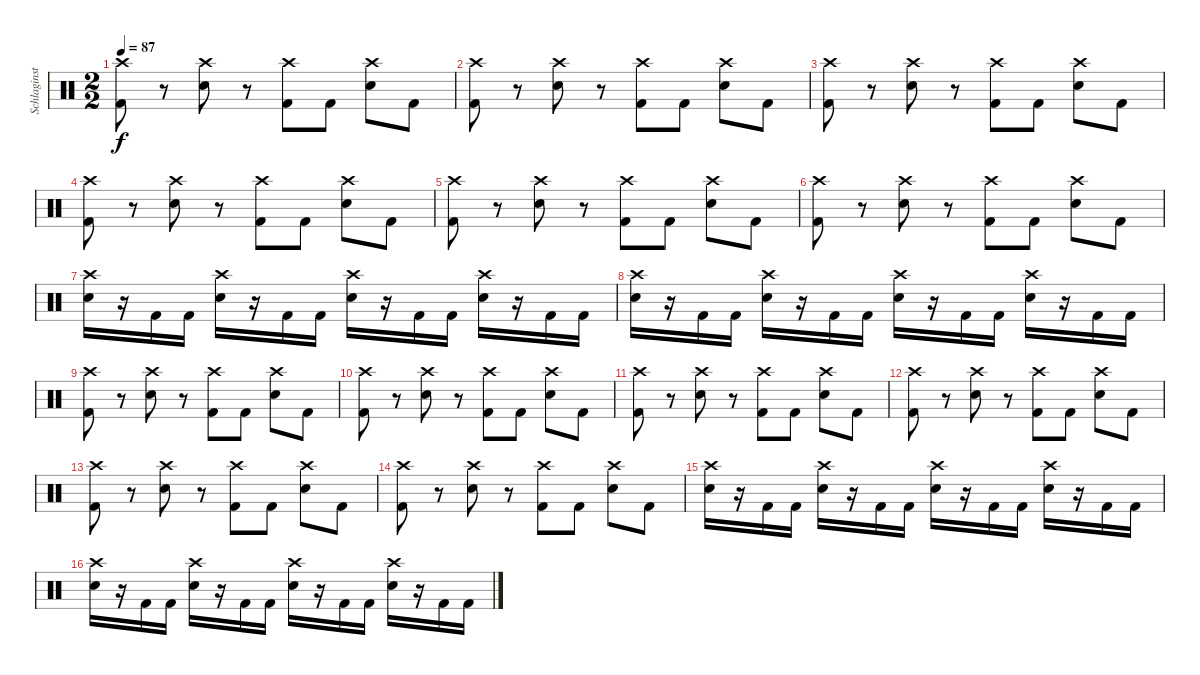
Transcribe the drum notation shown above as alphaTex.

\track ("Schlaginstrumente - Auswahl" "Schlaginst") {instrument percussion}
\staff {score}
\articulation defaults
\ts (2 2)
\tempo 87
\clef neutral
\ks c
("Crash high (hit)" "Kick (hit) 2").8{dy f} r.8 ("Crash high (hit)" "Electric Snare (hit)").8 r.8 ("Crash high (hit)" "Kick (hit) 2").8 "Kick (hit) 2".8 ("Crash high (hit)" "Electric Snare (hit)").8 "Kick (hit) 2".8 |
("Crash high (hit)" "Kick (hit) 2").8 r.8 ("Crash high (hit)" "Electric Snare (hit)").8 r.8 ("Crash high (hit)" "Kick (hit) 2").8 "Kick (hit) 2".8 ("Crash high (hit)" "Electric Snare (hit)").8 "Kick (hit) 2".8 |
("Crash high (hit)" "Kick (hit) 2").8 r.8 ("Crash high (hit)" "Electric Snare (hit)").8 r.8 ("Crash high (hit)" "Kick (hit) 2").8 "Kick (hit) 2".8 ("Crash high (hit)" "Electric Snare (hit)").8 "Kick (hit) 2".8 |
("Crash high (hit)" "Kick (hit) 2").8 r.8 ("Crash high (hit)" "Electric Snare (hit)").8 r.8 ("Crash high (hit)" "Kick (hit) 2").8 "Kick (hit) 2".8 ("Crash high (hit)" "Electric Snare (hit)").8 "Kick (hit) 2".8 |
("Crash high (hit)" "Kick (hit) 2").8 r.8 ("Crash high (hit)" "Electric Snare (hit)").8 r.8 ("Crash high (hit)" "Kick (hit) 2").8 "Kick (hit) 2".8 ("Crash high (hit)" "Electric Snare (hit)").8 "Kick (hit) 2".8 |
("Crash high (hit)" "Kick (hit) 2").8 r.8 ("Crash high (hit)" "Electric Snare (hit)").8 r.8 ("Crash high (hit)" "Kick (hit) 2").8 "Kick (hit) 2".8 ("Crash high (hit)" "Electric Snare (hit)").8 "Kick (hit) 2".8 |
("Crash high (hit)" "Electric Snare (hit)").16 r.16 "Kick (hit) 2".16 "Kick (hit) 2".16 ("Crash high (hit)" "Electric Snare (hit)").16 r.16 "Kick (hit) 2".16 "Kick (hit) 2".16 ("Crash high (hit)" "Electric Snare (hit)").16 r.16 "Kick (hit) 2".16 "Kick (hit) 2".16 ("Crash high (hit)" "Electric Snare (hit)").16 r.16 "Kick (hit) 2".16 "Kick (hit) 2".16 |
("Crash high (hit)" "Electric Snare (hit)").16 r.16 "Kick (hit) 2".16 "Kick (hit) 2".16 ("Crash high (hit)" "Electric Snare (hit)").16 r.16 "Kick (hit) 2".16 "Kick (hit) 2".16 ("Crash high (hit)" "Electric Snare (hit)").16 r.16 "Kick (hit) 2".16 "Kick (hit) 2".16 ("Crash high (hit)" "Electric Snare (hit)").16 r.16 "Kick (hit) 2".16 "Kick (hit) 2".16 |
("Crash high (hit)" "Kick (hit) 2").8 r.8 ("Crash high (hit)" "Electric Snare (hit)").8 r.8 ("Crash high (hit)" "Kick (hit) 2").8 "Kick (hit) 2".8 ("Crash high (hit)" "Electric Snare (hit)").8 "Kick (hit) 2".8 |
("Crash high (hit)" "Kick (hit) 2").8 r.8 ("Crash high (hit)" "Electric Snare (hit)").8 r.8 ("Crash high (hit)" "Kick (hit) 2").8 "Kick (hit) 2".8 ("Crash high (hit)" "Electric Snare (hit)").8 "Kick (hit) 2".8 |
("Crash high (hit)" "Kick (hit) 2").8 r.8 ("Crash high (hit)" "Electric Snare (hit)").8 r.8 ("Crash high (hit)" "Kick (hit) 2").8 "Kick (hit) 2".8 ("Crash high (hit)" "Electric Snare (hit)").8 "Kick (hit) 2".8 |
("Crash high (hit)" "Kick (hit) 2").8 r.8 ("Crash high (hit)" "Electric Snare (hit)").8 r.8 ("Crash high (hit)" "Kick (hit) 2").8 "Kick (hit) 2".8 ("Crash high (hit)" "Electric Snare (hit)").8 "Kick (hit) 2".8 |
("Crash high (hit)" "Kick (hit) 2").8 r.8 ("Crash high (hit)" "Electric Snare (hit)").8 r.8 ("Crash high (hit)" "Kick (hit) 2").8 "Kick (hit) 2".8 ("Crash high (hit)" "Electric Snare (hit)").8 "Kick (hit) 2".8 |
("Crash high (hit)" "Kick (hit) 2").8 r.8 ("Crash high (hit)" "Electric Snare (hit)").8 r.8 ("Crash high (hit)" "Kick (hit) 2").8 "Kick (hit) 2".8 ("Crash high (hit)" "Electric Snare (hit)").8 "Kick (hit) 2".8 |
("Crash high (hit)" "Electric Snare (hit)").16 r.16 "Kick (hit) 2".16 "Kick (hit) 2".16 ("Crash high (hit)" "Electric Snare (hit)").16 r.16 "Kick (hit) 2".16 "Kick (hit) 2".16 ("Crash high (hit)" "Electric Snare (hit)").16 r.16 "Kick (hit) 2".16 "Kick (hit) 2".16 ("Crash high (hit)" "Electric Snare (hit)").16 r.16 "Kick (hit) 2".16 "Kick (hit) 2".16 |
("Crash high (hit)" "Electric Snare (hit)").16 r.16 "Kick (hit) 2".16 "Kick (hit) 2".16 ("Crash high (hit)" "Electric Snare (hit)").16 r.16 "Kick (hit) 2".16 "Kick (hit) 2".16 ("Crash high (hit)" "Electric Snare (hit)").16 r.16 "Kick (hit) 2".16 "Kick (hit) 2".16 ("Crash high (hit)" "Electric Snare (hit)").16 r.16 "Kick (hit) 2".16 "Kick (hit) 2".16
